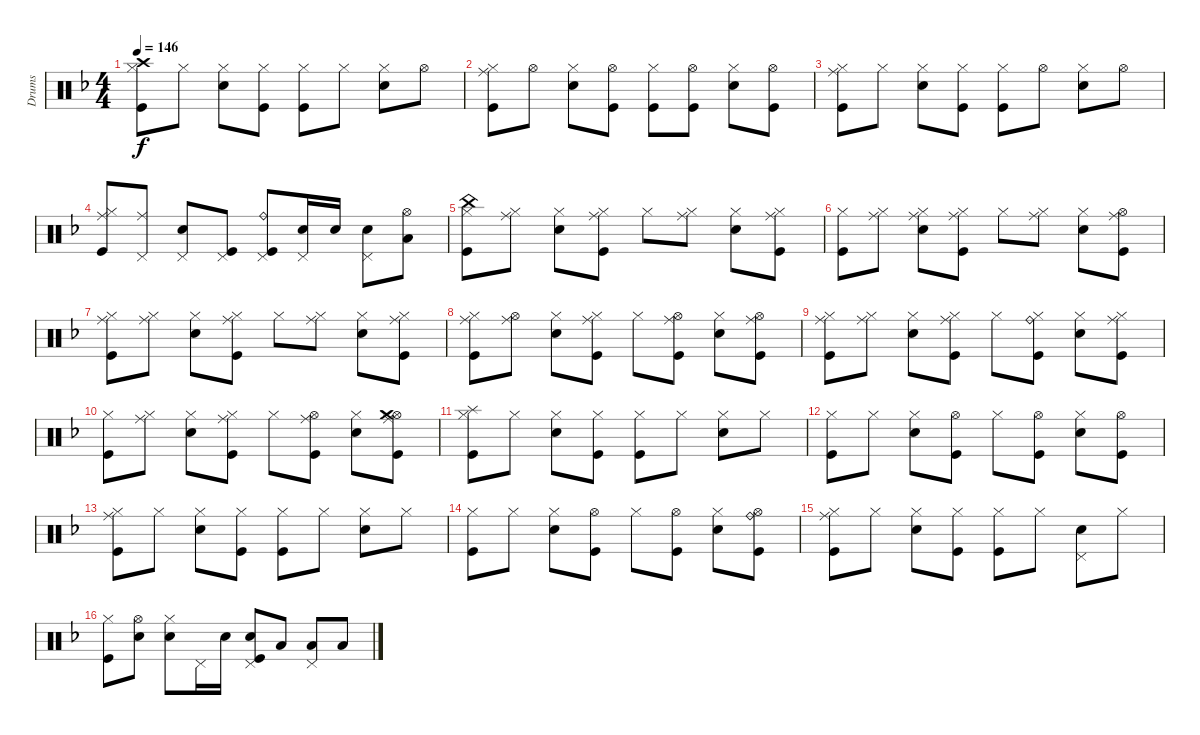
\track ("Drums" "Drums") {instrument percussion}
\staff {score}
\articulation defaults
\ts (4 4)
\tempo 146
\clef neutral
\ks f
("Kick (hit)" "Hi-Hat (closed)" "Crash high (hit)").8{dy f} "Hi-Hat (closed)".8 ("Snare (hit) 2" "Hi-Hat (closed)").8 ("Kick (hit)" "Hi-Hat (closed)").8 ("Kick (hit)" "Hi-Hat (closed)").8 "Hi-Hat (closed)".8 ("Snare (hit) 2" "Hi-Hat (closed)").8 "Hi-Hat (open)".8 |
("Kick (hit)" "Hi-Hat (closed)" "Ride (middle)").8 "Hi-Hat (open)".8 ("Snare (hit) 2" "Hi-Hat (closed)").8 ("Kick (hit)" "Hi-Hat (open)").8 ("Kick (hit)" "Hi-Hat (closed)").8 ("Kick (hit)" "Hi-Hat (open)").8 ("Snare (hit) 2" "Hi-Hat (closed)").8 ("Kick (hit)" "Hi-Hat (open)").8 |
("Kick (hit)" "Hi-Hat (closed)" "Ride (middle)").8 "Hi-Hat (closed)".8 ("Snare (hit) 2" "Hi-Hat (closed)").8 ("Kick (hit)" "Hi-Hat (closed)").8 ("Kick (hit)" "Hi-Hat (closed)").8 "Hi-Hat (open)".8 ("Snare (hit) 2" "Hi-Hat (closed)").8 "Hi-Hat (open)".8 |
("Kick (hit)" "Hi-Hat (closed)" "Ride (middle)").8 ("Pedal Hi-Hat (hit)" "Ride (middle)").8 ("Snare (hit) 2" "Pedal Hi-Hat (hit)").8 ("Kick (hit)" "Pedal Hi-Hat (hit)").8 ("Kick (hit)" "Pedal Hi-Hat (hit)" "Ride (bell)").8 ("Snare (hit) 2" "Pedal Hi-Hat (hit)").16 "Snare (hit) 2".16 ("Snare (hit) 2" "Pedal Hi-Hat (hit)").8 ("Low Floor Tom (hit)" "Hi-Hat (open)").8 |
("Kick (hit)" "Hi-Hat (closed)" "China (hit)").8 ("Hi-Hat (closed)" "Ride (middle)").8 ("Snare (hit) 2" "Hi-Hat (closed)").8 ("Kick (hit)" "Hi-Hat (closed)" "Ride (middle)").8 "Hi-Hat (closed)".8 ("Hi-Hat (closed)" "Ride (middle)").8 ("Snare (hit) 2" "Hi-Hat (closed)").8 ("Hi-Hat (closed)" "Ride (middle)" "Kick (hit)").8 |
("Kick (hit)" "Hi-Hat (closed)").8 ("Hi-Hat (closed)" "Ride (middle)").8 ("Snare (hit) 2" "Hi-Hat (closed)" "Ride (middle)").8 ("Ride (middle)" "Kick (hit)" "Hi-Hat (closed)").8 "Hi-Hat (closed)".8 ("Hi-Hat (closed)" "Ride (middle)").8 ("Snare (hit) 2" "Hi-Hat (closed)").8 ("Ride (middle)" "Kick (hit)" "Hi-Hat (open)").8 |
("Ride (middle)" "Kick (hit)" "Hi-Hat (closed)").8 ("Hi-Hat (closed)" "Ride (middle)").8 ("Snare (hit) 2" "Hi-Hat (closed)").8 ("Kick (hit)" "Hi-Hat (closed)" "Ride (middle)").8 "Hi-Hat (closed)".8 ("Hi-Hat (closed)" "Ride (middle)").8 ("Snare (hit) 2" "Hi-Hat (closed)").8 ("Kick (hit)" "Hi-Hat (closed)" "Ride (middle)").8 |
("Kick (hit)" "Hi-Hat (closed)" "Ride (middle)").8 ("Hi-Hat (open)" "Ride (middle)").8 ("Snare (hit) 2" "Hi-Hat (closed)").8 ("Kick (hit)" "Hi-Hat (closed)" "Ride (middle)").8 "Hi-Hat (closed)".8 ("Kick (hit)" "Hi-Hat (open)" "Ride (middle)").8 ("Snare (hit) 2" "Hi-Hat (closed)").8 ("Kick (hit)" "Hi-Hat (open)" "Ride (middle)").8 |
("Kick (hit)" "Hi-Hat (closed)" "Ride (middle)").8 ("Hi-Hat (closed)" "Ride (middle)").8 ("Snare (hit) 2" "Hi-Hat (closed)").8 ("Kick (hit)" "Hi-Hat (closed)" "Ride (middle)").8 "Hi-Hat (closed)".8 ("Kick (hit)" "Hi-Hat (closed)" "Ride (bell)").8 ("Snare (hit) 2" "Hi-Hat (closed)").8 ("Kick (hit)" "Hi-Hat (closed)" "Ride (middle)").8 |
("Kick (hit)" "Hi-Hat (closed)").8 ("Hi-Hat (closed)" "Ride (middle)").8 ("Snare (hit) 2" "Hi-Hat (closed)").8 ("Kick (hit)" "Hi-Hat (closed)" "Ride (middle)").8 "Hi-Hat (closed)".8 ("Kick (hit)" "Hi-Hat (open)" "Ride (middle)").8 ("Snare (hit) 2" "Hi-Hat (closed)").8 ("Kick (hit)" "Hi-Hat (open)" "Ride (middle)" "Crash medium (hit)").8 |
("Kick (hit)" "Hi-Hat (closed)" "Splash (hit)").8 "Hi-Hat (closed)".8 ("Snare (hit) 2" "Hi-Hat (closed)").8 ("Kick (hit)" "Hi-Hat (closed)").8 ("Kick (hit)" "Hi-Hat (closed)").8 "Hi-Hat (closed)".8 ("Snare (hit) 2" "Hi-Hat (closed)").8 "Hi-Hat (closed)".8 |
("Kick (hit)" "Hi-Hat (closed)").8 "Hi-Hat (closed)".8 ("Snare (hit) 2" "Hi-Hat (closed)").8 ("Kick (hit)" "Hi-Hat (open)").8 "Hi-Hat (closed)".8 ("Kick (hit)" "Hi-Hat (open)").8 ("Snare (hit) 2" "Hi-Hat (closed)").8 ("Kick (hit)" "Hi-Hat (open)").8 |
("Kick (hit)" "Hi-Hat (closed)" "Ride (middle)").8 "Hi-Hat (closed)".8 ("Snare (hit) 2" "Hi-Hat (closed)").8 ("Kick (hit)" "Hi-Hat (closed)").8 ("Kick (hit)" "Hi-Hat (closed)").8 "Hi-Hat (closed)".8 ("Snare (hit) 2" "Hi-Hat (closed)").8 "Hi-Hat (closed)".8 |
("Kick (hit)" "Hi-Hat (closed)").8 "Hi-Hat (closed)".8 ("Snare (hit) 2" "Hi-Hat (closed)").8 ("Kick (hit)" "Hi-Hat (open)").8 "Hi-Hat (closed)".8 ("Kick (hit)" "Hi-Hat (open)").8 ("Snare (hit) 2" "Hi-Hat (closed)").8 ("Kick (hit)" "Hi-Hat (open)" "Ride (bell)").8 |
("Kick (hit)" "Hi-Hat (closed)" "Ride (middle)").8 "Hi-Hat (closed)".8 ("Snare (hit) 2" "Hi-Hat (closed)").8 ("Kick (hit)" "Hi-Hat (closed)").8 ("Kick (hit)" "Hi-Hat (closed)").8 "Hi-Hat (closed)".8 ("Snare (hit) 2" "Pedal Hi-Hat (hit)").8 "Hi-Hat (closed)".8 |
("Kick (hit)" "Hi-Hat (closed)").8 ("Snare (hit) 2" "Hi-Hat (open)").8 ("Snare (hit) 2" "Hi-Hat (closed)").8 "Pedal Hi-Hat (hit)".16 "Snare (hit) 2".16 ("Kick (hit)" "Snare (hit) 2" "Pedal Hi-Hat (hit)").8 "Low Tom (hit)".8 ("Low Floor Tom (hit)" "Pedal Hi-Hat (hit)").8 "Low Floor Tom (hit)".8
